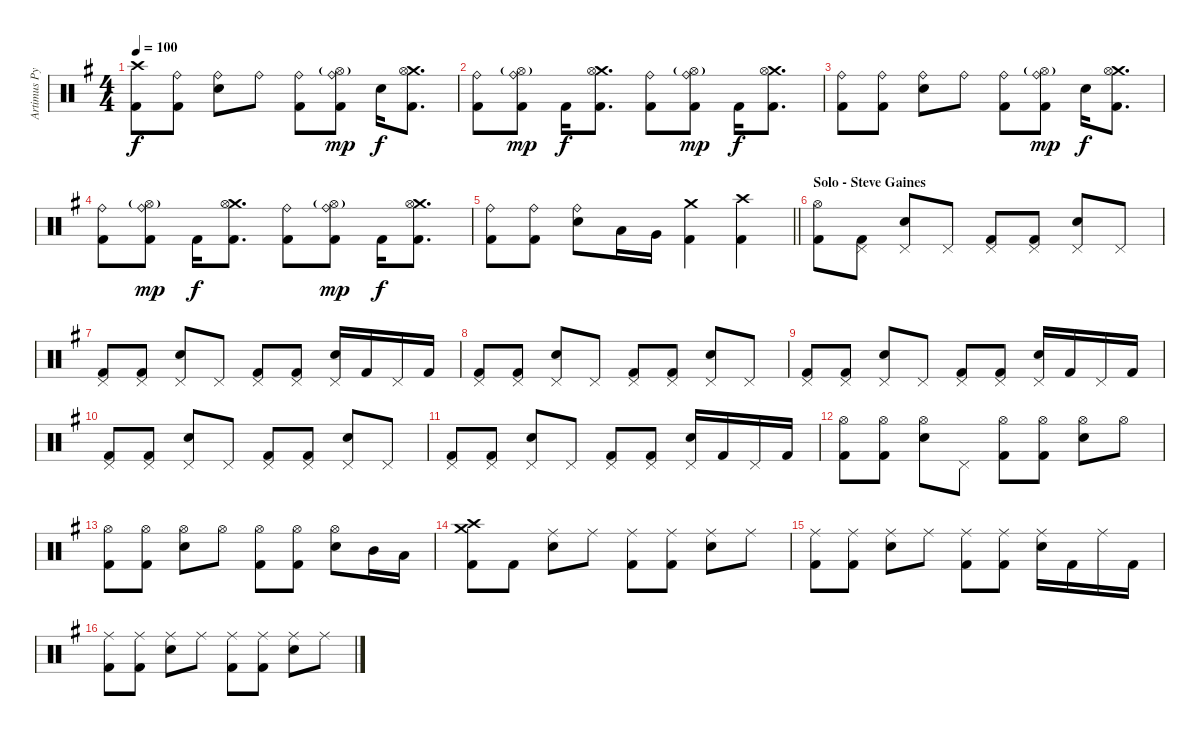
\track ("Artimus Pyle" "Artimus Py") {instrument percussion}
\staff {score}
\articulation defaults
\ts (4 4)
\tempo 100
\clef neutral
\ks g
("Crash high (hit)" "Kick (hit) 2").8{dy f} ("Ride (bell)" "Kick (hit) 2").8 ("Ride (bell)" "Snare (hit) 2").8 "Ride (bell)".8 ("Ride (bell)" "Kick (hit) 2").8 ("Ride (bell)" "Hi-Hat (open)"{g} "Kick (hit) 2").8{dy mp} "Snare (hit) 2".16{dy f} ("Crash medium (hit)" "Hi-Hat (open)" "Kick (hit) 2").8{d} |
("Ride (bell)" "Kick (hit) 2").8 ("Ride (bell)" "Hi-Hat (open)"{g} "Kick (hit) 2").8{dy mp} "Kick (hit) 2".16{dy f} ("Crash medium (hit)" "Hi-Hat (open)" "Kick (hit) 2").8{d} ("Ride (bell)" "Kick (hit) 2").8 ("Ride (bell)" "Hi-Hat (open)"{g} "Kick (hit) 2").8{dy mp} "Kick (hit) 2".16{dy f} ("Crash medium (hit)" "Hi-Hat (open)" "Kick (hit) 2").8{d} |
("Ride (bell)" "Kick (hit) 2").8 ("Ride (bell)" "Kick (hit) 2").8 ("Ride (bell)" "Snare (hit) 2").8 "Ride (bell)".8 ("Ride (bell)" "Kick (hit) 2").8 ("Ride (bell)" "Hi-Hat (open)"{g} "Kick (hit) 2").8{dy mp} "Snare (hit) 2".16{dy f} ("Crash medium (hit)" "Hi-Hat (open)" "Kick (hit) 2").8{d} |
("Ride (bell)" "Kick (hit) 2").8 ("Ride (bell)" "Hi-Hat (open)"{g} "Kick (hit) 2").8{dy mp} "Kick (hit) 2".16{dy f} ("Crash medium (hit)" "Hi-Hat (open)" "Kick (hit) 2").8{d} ("Ride (bell)" "Kick (hit) 2").8 ("Ride (bell)" "Hi-Hat (open)"{g} "Kick (hit) 2").8{dy mp} "Kick (hit) 2".16{dy f} ("Crash medium (hit)" "Hi-Hat (open)" "Kick (hit) 2").8{d} |
\barLineRight lightlight
("Ride (bell)" "Kick (hit) 2").8 ("Ride (bell)" "Kick (hit) 2").8 ("Ride (bell)" "Snare (hit) 2").8 "Low Tom (hit)".16 "Very Low Tom (hit)".16 ("Crash medium (hit)" "Kick (hit) 2").4 ("Crash high (hit)" "Kick (hit) 2").4 |
\section ("" "Solo - Steve Gaines")
("Hi-Hat (open)" "Kick (hit) 2").8 ("Pedal Hi-Hat (hit)" "Kick (hit) 2").8 ("Snare (hit) 2" "Pedal Hi-Hat (hit)").8 "Pedal Hi-Hat (hit)".8 ("Pedal Hi-Hat (hit)" "Kick (hit) 2").8 ("Pedal Hi-Hat (hit)" "Kick (hit) 2").8 ("Snare (hit) 2" "Pedal Hi-Hat (hit)").8 "Pedal Hi-Hat (hit)".8 |
("Pedal Hi-Hat (hit)" "Kick (hit) 2").8 ("Pedal Hi-Hat (hit)" "Kick (hit) 2").8 ("Snare (hit) 2" "Pedal Hi-Hat (hit)").8 "Pedal Hi-Hat (hit)".8 ("Pedal Hi-Hat (hit)" "Kick (hit) 2").8 ("Pedal Hi-Hat (hit)" "Kick (hit) 2").8 ("Snare (hit) 2" "Pedal Hi-Hat (hit)").16 "Kick (hit) 2".16 "Pedal Hi-Hat (hit)".16 "Kick (hit) 2".16 |
("Pedal Hi-Hat (hit)" "Kick (hit) 2").8 ("Pedal Hi-Hat (hit)" "Kick (hit) 2").8 ("Snare (hit) 2" "Pedal Hi-Hat (hit)").8 "Pedal Hi-Hat (hit)".8 ("Pedal Hi-Hat (hit)" "Kick (hit) 2").8 ("Pedal Hi-Hat (hit)" "Kick (hit) 2").8 ("Snare (hit) 2" "Pedal Hi-Hat (hit)").8 "Pedal Hi-Hat (hit)".8 |
("Pedal Hi-Hat (hit)" "Kick (hit) 2").8 ("Pedal Hi-Hat (hit)" "Kick (hit) 2").8 ("Snare (hit) 2" "Pedal Hi-Hat (hit)").8 "Pedal Hi-Hat (hit)".8 ("Pedal Hi-Hat (hit)" "Kick (hit) 2").8 ("Pedal Hi-Hat (hit)" "Kick (hit) 2").8 ("Snare (hit) 2" "Pedal Hi-Hat (hit)").16 "Kick (hit) 2".16 "Pedal Hi-Hat (hit)".16 "Kick (hit) 2".16 |
("Pedal Hi-Hat (hit)" "Kick (hit) 2").8 ("Pedal Hi-Hat (hit)" "Kick (hit) 2").8 ("Snare (hit) 2" "Pedal Hi-Hat (hit)").8 "Pedal Hi-Hat (hit)".8 ("Pedal Hi-Hat (hit)" "Kick (hit) 2").8 ("Pedal Hi-Hat (hit)" "Kick (hit) 2").8 ("Snare (hit) 2" "Pedal Hi-Hat (hit)").8 "Pedal Hi-Hat (hit)".8 |
("Pedal Hi-Hat (hit)" "Kick (hit) 2").8 ("Pedal Hi-Hat (hit)" "Kick (hit) 2").8 ("Snare (hit) 2" "Pedal Hi-Hat (hit)").8 "Pedal Hi-Hat (hit)".8 ("Pedal Hi-Hat (hit)" "Kick (hit) 2").8 ("Pedal Hi-Hat (hit)" "Kick (hit) 2").8 ("Snare (hit) 2" "Pedal Hi-Hat (hit)").16 "Kick (hit) 2".16 "Pedal Hi-Hat (hit)".16 "Kick (hit) 2".16 |
("Hi-Hat (open)" "Kick (hit) 2").8 ("Hi-Hat (open)" "Kick (hit) 2").8 ("Snare (hit) 2" "Hi-Hat (open)").8 "Pedal Hi-Hat (hit)".8 ("Hi-Hat (open)" "Kick (hit) 2").8 ("Hi-Hat (open)" "Kick (hit) 2").8 ("Snare (hit) 2" "Hi-Hat (open)").8 "Hi-Hat (open)".8 |
("Hi-Hat (open)" "Kick (hit) 2").8 ("Hi-Hat (open)" "Kick (hit) 2").8 ("Snare (hit) 2" "Hi-Hat (open)").8 "Hi-Hat (open)".8 ("Hi-Hat (open)" "Kick (hit) 2").8 ("Hi-Hat (open)" "Kick (hit) 2").8 ("Snare (hit) 2" "Hi-Hat (open)").8 "Mid Tom (hit)".16 "Low Tom (hit)".16 |
("Crash medium (hit)" "Crash high (hit)" "Kick (hit) 2").8 "Kick (hit) 2".8 ("Ride (middle)" "Snare (hit) 2").8 "Ride (middle)".8 ("Ride (middle)" "Kick (hit) 2").8 ("Ride (middle)" "Kick (hit) 2").8 ("Ride (middle)" "Snare (hit) 2").8 "Ride (middle)".8 |
("Ride (middle)" "Kick (hit) 2").8 ("Ride (middle)" "Kick (hit) 2").8 ("Ride (middle)" "Snare (hit) 2").8 "Ride (middle)".8 ("Ride (middle)" "Kick (hit) 2").8 ("Ride (middle)" "Kick (hit) 2").8 ("Ride (middle)" "Snare (hit) 2").16 "Kick (hit) 2".16 "Ride (middle)".16 "Kick (hit) 2".16 |
("Ride (middle)" "Kick (hit) 2").8 ("Ride (middle)" "Kick (hit) 2").8 ("Ride (middle)" "Snare (hit) 2").8 "Ride (middle)".8 ("Ride (middle)" "Kick (hit) 2").8 ("Ride (middle)" "Kick (hit) 2").8 ("Ride (middle)" "Snare (hit) 2").8 "Ride (middle)".8
